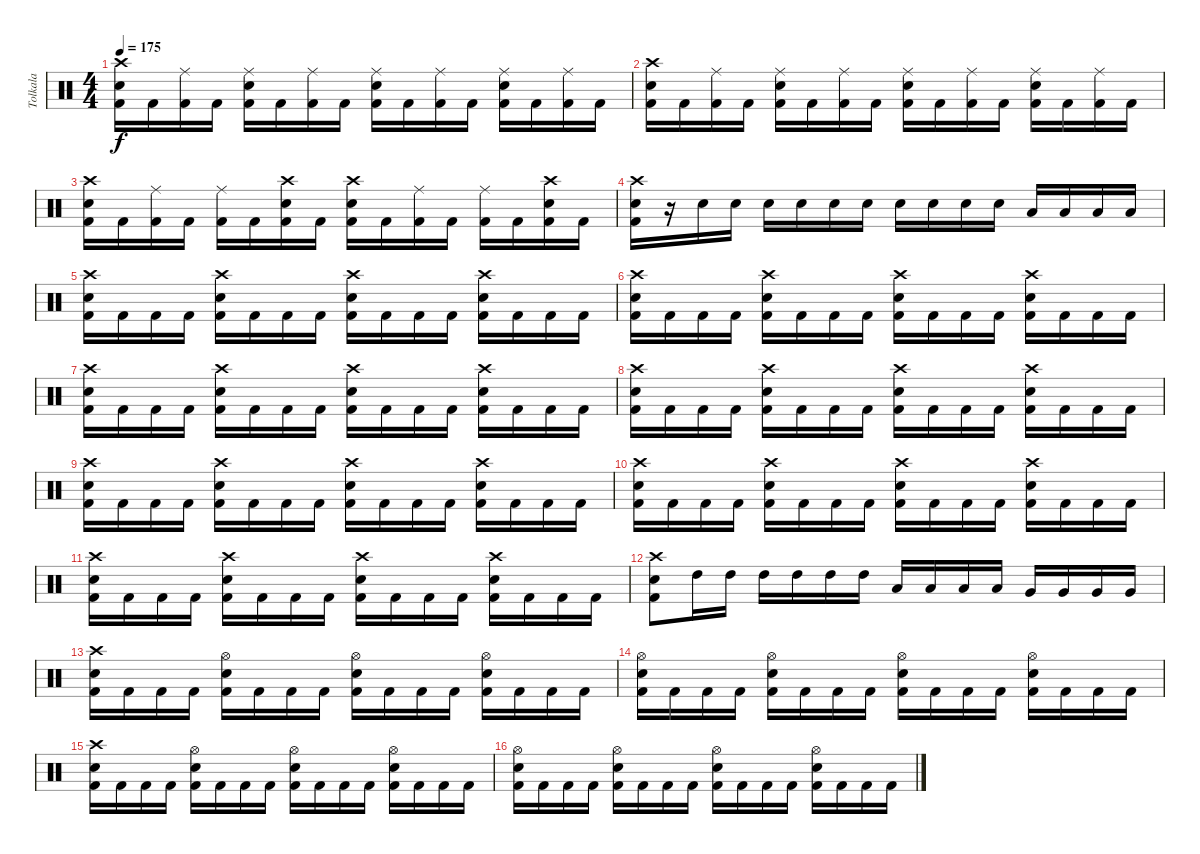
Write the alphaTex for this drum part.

\track ("Tolkala" "Tolkala") {instrument percussion}
\staff {score}
\articulation defaults
\ts (4 4)
\tempo 175
\clef neutral
\ks c
("Crash high (hit)" "Electric Snare (hit)" "Kick (hit) 2").16{dy f} "Kick (hit) 2".16 ("Ride (middle)" "Kick (hit) 2").16 "Kick (hit) 2".16 ("Ride (middle)" "Electric Snare (hit)" "Kick (hit) 2").16 "Kick (hit) 2".16 ("Ride (middle)" "Kick (hit) 2").16 "Kick (hit) 2".16 ("Ride (middle)" "Electric Snare (hit)" "Kick (hit) 2").16 "Kick (hit) 2".16 ("Ride (middle)" "Kick (hit) 2").16 "Kick (hit) 2".16 ("Ride (middle)" "Electric Snare (hit)" "Kick (hit) 2").16 "Kick (hit) 2".16 ("Ride (middle)" "Kick (hit) 2").16 "Kick (hit) 2".16 |
("Crash high (hit)" "Electric Snare (hit)" "Kick (hit) 2").16 "Kick (hit) 2".16 ("Ride (middle)" "Kick (hit) 2").16 "Kick (hit) 2".16 ("Ride (middle)" "Electric Snare (hit)" "Kick (hit) 2").16 "Kick (hit) 2".16 ("Ride (middle)" "Kick (hit) 2").16 "Kick (hit) 2".16 ("Ride (middle)" "Electric Snare (hit)" "Kick (hit) 2").16 "Kick (hit) 2".16 ("Ride (middle)" "Kick (hit) 2").16 "Kick (hit) 2".16 ("Ride (middle)" "Electric Snare (hit)" "Kick (hit) 2").16 "Kick (hit) 2".16 ("Ride (middle)" "Kick (hit) 2").16 "Kick (hit) 2".16 |
("Crash high (hit)" "Electric Snare (hit)" "Kick (hit) 2").16 "Kick (hit) 2".16 ("Ride (middle)" "Kick (hit) 2").16 "Kick (hit) 2".16 ("Ride (middle)" "Kick (hit) 2").16 "Kick (hit) 2".16 ("Crash high (hit)" "Electric Snare (hit)" "Kick (hit) 2").16 "Kick (hit) 2".16 ("Crash high (hit)" "Electric Snare (hit)" "Kick (hit) 2").16 "Kick (hit) 2".16 ("Ride (middle)" "Kick (hit) 2").16 "Kick (hit) 2".16 ("Ride (middle)" "Kick (hit) 2").16 "Kick (hit) 2".16 ("Crash high (hit)" "Electric Snare (hit)" "Kick (hit) 2").16 "Kick (hit) 2".16 |
("Crash high (hit)" "Electric Snare (hit)" "Kick (hit) 2").16 r.16 "Electric Snare (hit)".16 "Electric Snare (hit)".16 "Electric Snare (hit)".16 "Electric Snare (hit)".16 "Electric Snare (hit)".16 "Electric Snare (hit)".16 "Electric Snare (hit)".16 "Electric Snare (hit)".16 "Electric Snare (hit)".16 "Electric Snare (hit)".16 "Low Tom (hit)".16 "Low Tom (hit)".16 "Low Tom (hit)".16 "Low Tom (hit)".16 |
("Crash high (hit)" "Electric Snare (hit)" "Kick (hit) 2").16 "Kick (hit) 2".16 "Kick (hit) 2".16 "Kick (hit) 2".16 ("Crash high (hit)" "Electric Snare (hit)" "Kick (hit) 2").16 "Kick (hit) 2".16 "Kick (hit) 2".16 "Kick (hit) 2".16 ("Crash high (hit)" "Electric Snare (hit)" "Kick (hit) 2").16 "Kick (hit) 2".16 "Kick (hit) 2".16 "Kick (hit) 2".16 ("Crash high (hit)" "Electric Snare (hit)" "Kick (hit) 2").16 "Kick (hit) 2".16 "Kick (hit) 2".16 "Kick (hit) 2".16 |
("Crash high (hit)" "Electric Snare (hit)" "Kick (hit) 2").16 "Kick (hit) 2".16 "Kick (hit) 2".16 "Kick (hit) 2".16 ("Crash high (hit)" "Electric Snare (hit)" "Kick (hit) 2").16 "Kick (hit) 2".16 "Kick (hit) 2".16 "Kick (hit) 2".16 ("Crash high (hit)" "Electric Snare (hit)" "Kick (hit) 2").16 "Kick (hit) 2".16 "Kick (hit) 2".16 "Kick (hit) 2".16 ("Crash high (hit)" "Electric Snare (hit)" "Kick (hit) 2").16 "Kick (hit) 2".16 "Kick (hit) 2".16 "Kick (hit) 2".16 |
("Crash high (hit)" "Electric Snare (hit)" "Kick (hit) 2").16 "Kick (hit) 2".16 "Kick (hit) 2".16 "Kick (hit) 2".16 ("Crash high (hit)" "Electric Snare (hit)" "Kick (hit) 2").16 "Kick (hit) 2".16 "Kick (hit) 2".16 "Kick (hit) 2".16 ("Crash high (hit)" "Electric Snare (hit)" "Kick (hit) 2").16 "Kick (hit) 2".16 "Kick (hit) 2".16 "Kick (hit) 2".16 ("Crash high (hit)" "Electric Snare (hit)" "Kick (hit) 2").16 "Kick (hit) 2".16 "Kick (hit) 2".16 "Kick (hit) 2".16 |
("Crash high (hit)" "Electric Snare (hit)" "Kick (hit) 2").16 "Kick (hit) 2".16 "Kick (hit) 2".16 "Kick (hit) 2".16 ("Crash high (hit)" "Electric Snare (hit)" "Kick (hit) 2").16 "Kick (hit) 2".16 "Kick (hit) 2".16 "Kick (hit) 2".16 ("Crash high (hit)" "Electric Snare (hit)" "Kick (hit) 2").16 "Kick (hit) 2".16 "Kick (hit) 2".16 "Kick (hit) 2".16 ("Crash high (hit)" "Electric Snare (hit)" "Kick (hit) 2").16 "Kick (hit) 2".16 "Kick (hit) 2".16 "Kick (hit) 2".16 |
("Crash high (hit)" "Electric Snare (hit)" "Kick (hit) 2").16 "Kick (hit) 2".16 "Kick (hit) 2".16 "Kick (hit) 2".16 ("Crash high (hit)" "Electric Snare (hit)" "Kick (hit) 2").16 "Kick (hit) 2".16 "Kick (hit) 2".16 "Kick (hit) 2".16 ("Crash high (hit)" "Electric Snare (hit)" "Kick (hit) 2").16 "Kick (hit) 2".16 "Kick (hit) 2".16 "Kick (hit) 2".16 ("Crash high (hit)" "Electric Snare (hit)" "Kick (hit) 2").16 "Kick (hit) 2".16 "Kick (hit) 2".16 "Kick (hit) 2".16 |
("Crash high (hit)" "Electric Snare (hit)" "Kick (hit) 2").16 "Kick (hit) 2".16 "Kick (hit) 2".16 "Kick (hit) 2".16 ("Crash high (hit)" "Electric Snare (hit)" "Kick (hit) 2").16 "Kick (hit) 2".16 "Kick (hit) 2".16 "Kick (hit) 2".16 ("Crash high (hit)" "Electric Snare (hit)" "Kick (hit) 2").16 "Kick (hit) 2".16 "Kick (hit) 2".16 "Kick (hit) 2".16 ("Crash high (hit)" "Electric Snare (hit)" "Kick (hit) 2").16 "Kick (hit) 2".16 "Kick (hit) 2".16 "Kick (hit) 2".16 |
("Crash high (hit)" "Electric Snare (hit)" "Kick (hit) 2").16 "Kick (hit) 2".16 "Kick (hit) 2".16 "Kick (hit) 2".16 ("Crash high (hit)" "Electric Snare (hit)" "Kick (hit) 2").16 "Kick (hit) 2".16 "Kick (hit) 2".16 "Kick (hit) 2".16 ("Crash high (hit)" "Electric Snare (hit)" "Kick (hit) 2").16 "Kick (hit) 2".16 "Kick (hit) 2".16 "Kick (hit) 2".16 ("Crash high (hit)" "Electric Snare (hit)" "Kick (hit) 2").16 "Kick (hit) 2".16 "Kick (hit) 2".16 "Kick (hit) 2".16 |
("Crash high (hit)" "Electric Snare (hit)" "Kick (hit) 2").8 "High Tom (hit)".16 "High Tom (hit)".16 "High Tom (hit)".16 "High Tom (hit)".16 "High Tom (hit)".16 "High Tom (hit)".16 "Low Tom (hit)".16 "Low Tom (hit)".16 "Low Tom (hit)".16 "Low Tom (hit)".16 "Very Low Tom (hit)".16 "Very Low Tom (hit)".16 "Very Low Tom (hit)".16 "Very Low Tom (hit)".16 |
("Crash high (hit)" "Electric Snare (hit)" "Kick (hit) 2").16 "Kick (hit) 2".16 "Kick (hit) 2".16 "Kick (hit) 2".16 ("Hi-Hat (open)" "Electric Snare (hit)" "Kick (hit) 2").16 "Kick (hit) 2".16 "Kick (hit) 2".16 "Kick (hit) 2".16 ("Hi-Hat (open)" "Electric Snare (hit)" "Kick (hit) 2").16 "Kick (hit) 2".16 "Kick (hit) 2".16 "Kick (hit) 2".16 ("Hi-Hat (open)" "Electric Snare (hit)" "Kick (hit) 2").16 "Kick (hit) 2".16 "Kick (hit) 2".16 "Kick (hit) 2".16 |
("Hi-Hat (open)" "Electric Snare (hit)" "Kick (hit) 2").16 "Kick (hit) 2".16 "Kick (hit) 2".16 "Kick (hit) 2".16 ("Hi-Hat (open)" "Electric Snare (hit)" "Kick (hit) 2").16 "Kick (hit) 2".16 "Kick (hit) 2".16 "Kick (hit) 2".16 ("Hi-Hat (open)" "Electric Snare (hit)" "Kick (hit) 2").16 "Kick (hit) 2".16 "Kick (hit) 2".16 "Kick (hit) 2".16 ("Hi-Hat (open)" "Electric Snare (hit)" "Kick (hit) 2").16 "Kick (hit) 2".16 "Kick (hit) 2".16 "Kick (hit) 2".16 |
("Crash high (hit)" "Electric Snare (hit)" "Kick (hit) 2").16 "Kick (hit) 2".16 "Kick (hit) 2".16 "Kick (hit) 2".16 ("Hi-Hat (open)" "Electric Snare (hit)" "Kick (hit) 2").16 "Kick (hit) 2".16 "Kick (hit) 2".16 "Kick (hit) 2".16 ("Hi-Hat (open)" "Electric Snare (hit)" "Kick (hit) 2").16 "Kick (hit) 2".16 "Kick (hit) 2".16 "Kick (hit) 2".16 ("Hi-Hat (open)" "Electric Snare (hit)" "Kick (hit) 2").16 "Kick (hit) 2".16 "Kick (hit) 2".16 "Kick (hit) 2".16 |
("Hi-Hat (open)" "Electric Snare (hit)" "Kick (hit) 2").16 "Kick (hit) 2".16 "Kick (hit) 2".16 "Kick (hit) 2".16 ("Hi-Hat (open)" "Electric Snare (hit)" "Kick (hit) 2").16 "Kick (hit) 2".16 "Kick (hit) 2".16 "Kick (hit) 2".16 ("Hi-Hat (open)" "Electric Snare (hit)" "Kick (hit) 2").16 "Kick (hit) 2".16 "Kick (hit) 2".16 "Kick (hit) 2".16 ("Hi-Hat (open)" "Electric Snare (hit)" "Kick (hit) 2").16 "Kick (hit) 2".16 "Kick (hit) 2".16 "Kick (hit) 2".16
